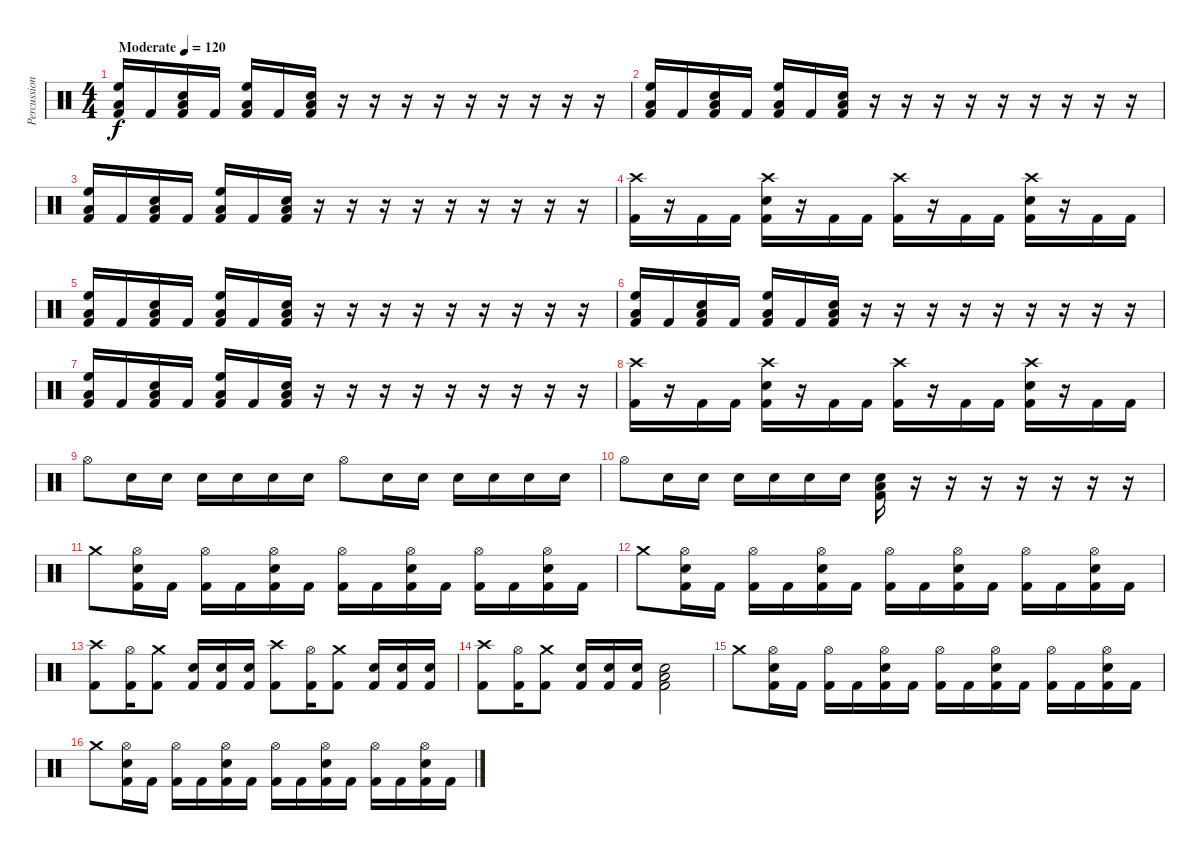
\track ("Percussion" "Percussion") {instrument percussion}
\staff {score}
\articulation defaults
\ts (4 4)
\tempo (120 "Moderate")
\clef neutral
\ks c
("Low Floor Tom (hit)" "High Floor Tom (hit)" "Kick (hit) 2").16{dy f} "Kick (hit) 2".16 ("Low Floor Tom (hit)" "Snare (hit) 2" "Kick (hit) 2").16 "Kick (hit) 2".16 ("Low Floor Tom (hit)" "High Floor Tom (hit)" "Kick (hit) 2").16 "Kick (hit) 2".16 ("Low Floor Tom (hit)" "Snare (hit) 2" "Kick (hit) 2").16 r.16 r.16 r.16 r.16 r.16 r.16 r.16 r.16 r.16 |
("Low Floor Tom (hit)" "High Floor Tom (hit)" "Kick (hit) 2").16 "Kick (hit) 2".16 ("Low Floor Tom (hit)" "Snare (hit) 2" "Kick (hit) 2").16 "Kick (hit) 2".16 ("Low Floor Tom (hit)" "High Floor Tom (hit)" "Kick (hit) 2").16 "Kick (hit) 2".16 ("Low Floor Tom (hit)" "Snare (hit) 2" "Kick (hit) 2").16 r.16 r.16 r.16 r.16 r.16 r.16 r.16 r.16 r.16 |
("Low Floor Tom (hit)" "High Floor Tom (hit)" "Kick (hit) 2").16 "Kick (hit) 2".16 ("Low Floor Tom (hit)" "Snare (hit) 2" "Kick (hit) 2").16 "Kick (hit) 2".16 ("Low Floor Tom (hit)" "High Floor Tom (hit)" "Kick (hit) 2").16 "Kick (hit) 2".16 ("Low Floor Tom (hit)" "Snare (hit) 2" "Kick (hit) 2").16 r.16 r.16 r.16 r.16 r.16 r.16 r.16 r.16 r.16 |
("Crash high (hit)" "Kick (hit) 2").16 r.16 "Kick (hit) 2".16 "Kick (hit) 2".16 ("Snare (hit) 2" "Crash high (hit)" "Kick (hit) 2").16 r.16 "Kick (hit) 2".16 "Kick (hit) 2".16 ("Crash high (hit)" "Kick (hit) 2").16 r.16 "Kick (hit) 2".16 "Kick (hit) 2".16 ("Snare (hit) 2" "Crash high (hit)" "Kick (hit) 2").16 r.16 "Kick (hit) 2".16 "Kick (hit) 2".16 |
("Low Floor Tom (hit)" "High Floor Tom (hit)" "Kick (hit) 2").16 "Kick (hit) 2".16 ("Low Floor Tom (hit)" "Snare (hit) 2" "Kick (hit) 2").16 "Kick (hit) 2".16 ("Low Floor Tom (hit)" "High Floor Tom (hit)" "Kick (hit) 2").16 "Kick (hit) 2".16 ("Low Floor Tom (hit)" "Snare (hit) 2" "Kick (hit) 2").16 r.16 r.16 r.16 r.16 r.16 r.16 r.16 r.16 r.16 |
("Low Floor Tom (hit)" "High Floor Tom (hit)" "Kick (hit) 2").16 "Kick (hit) 2".16 ("Low Floor Tom (hit)" "Snare (hit) 2" "Kick (hit) 2").16 "Kick (hit) 2".16 ("Low Floor Tom (hit)" "High Floor Tom (hit)" "Kick (hit) 2").16 "Kick (hit) 2".16 ("Low Floor Tom (hit)" "Snare (hit) 2" "Kick (hit) 2").16 r.16 r.16 r.16 r.16 r.16 r.16 r.16 r.16 r.16 |
("Low Floor Tom (hit)" "High Floor Tom (hit)" "Kick (hit) 2").16 "Kick (hit) 2".16 ("Low Floor Tom (hit)" "Snare (hit) 2" "Kick (hit) 2").16 "Kick (hit) 2".16 ("Low Floor Tom (hit)" "High Floor Tom (hit)" "Kick (hit) 2").16 "Kick (hit) 2".16 ("Low Floor Tom (hit)" "Snare (hit) 2" "Kick (hit) 2").16 r.16 r.16 r.16 r.16 r.16 r.16 r.16 r.16 r.16 |
("Crash high (hit)" "Kick (hit) 2").16 r.16 "Kick (hit) 2".16 "Kick (hit) 2".16 ("Snare (hit) 2" "Crash high (hit)" "Kick (hit) 2").16 r.16 "Kick (hit) 2".16 "Kick (hit) 2".16 ("Crash high (hit)" "Kick (hit) 2").16 r.16 "Kick (hit) 2".16 "Kick (hit) 2".16 ("Snare (hit) 2" "Crash high (hit)" "Kick (hit) 2").16 r.16 "Kick (hit) 2".16 "Kick (hit) 2".16 |
"Hi-Hat (open)".8 "Electric Snare (hit)".16 "Electric Snare (hit)".16 "Electric Snare (hit)".16 "Electric Snare (hit)".16 "Electric Snare (hit)".16 "Electric Snare (hit)".16 "Hi-Hat (open)".8 "Electric Snare (hit)".16 "Electric Snare (hit)".16 "Electric Snare (hit)".16 "Electric Snare (hit)".16 "Electric Snare (hit)".16 "Electric Snare (hit)".16 |
"Hi-Hat (open)".8 "Electric Snare (hit)".16 "Electric Snare (hit)".16 "Electric Snare (hit)".16 "Electric Snare (hit)".16 "Electric Snare (hit)".16 "Electric Snare (hit)".16 ("Low Floor Tom (hit)" "Electric Snare (hit)" "Kick (hit) 2").16 r.16 r.16 r.16 r.16 r.16 r.16 r.16 |
"Crash medium (hit)".8 ("Snare (hit) 2" "Hi-Hat (open)" "Kick (hit) 2").16 "Kick (hit) 2".16 ("Hi-Hat (open)" "Kick (hit) 2").16 "Kick (hit) 2".16 ("Snare (hit) 2" "Hi-Hat (open)" "Kick (hit) 2").16 "Kick (hit) 2".16 ("Hi-Hat (open)" "Kick (hit) 2").16 "Kick (hit) 2".16 ("Snare (hit) 2" "Hi-Hat (open)" "Kick (hit) 2").16 "Kick (hit) 2".16 ("Hi-Hat (open)" "Kick (hit) 2").16 "Kick (hit) 2".16 ("Snare (hit) 2" "Hi-Hat (open)" "Kick (hit) 2").16 "Kick (hit) 2".16 |
"Crash medium (hit)".8 ("Snare (hit) 2" "Hi-Hat (open)" "Kick (hit) 2").16 "Kick (hit) 2".16 ("Hi-Hat (open)" "Kick (hit) 2").16 "Kick (hit) 2".16 ("Snare (hit) 2" "Hi-Hat (open)" "Kick (hit) 2").16 "Kick (hit) 2".16 ("Hi-Hat (open)" "Kick (hit) 2").16 "Kick (hit) 2".16 ("Snare (hit) 2" "Hi-Hat (open)" "Kick (hit) 2").16 "Kick (hit) 2".16 ("Hi-Hat (open)" "Kick (hit) 2").16 "Kick (hit) 2".16 ("Snare (hit) 2" "Hi-Hat (open)" "Kick (hit) 2").16 "Kick (hit) 2".16 |
("Kick (hit) 2" "Crash high (hit)").8 ("Kick (hit) 2" "Hi-Hat (open)").16 ("Kick (hit) 2" "Crash medium (hit)").8 ("Kick (hit) 2" "Electric Snare (hit)").16 ("Kick (hit) 2" "Electric Snare (hit)").16 ("Kick (hit) 2" "Electric Snare (hit)").16 ("Kick (hit) 2" "Crash high (hit)").8 ("Kick (hit) 2" "Hi-Hat (open)").16 ("Kick (hit) 2" "Crash medium (hit)").8 ("Kick (hit) 2" "Electric Snare (hit)").16 ("Kick (hit) 2" "Electric Snare (hit)").16 ("Kick (hit) 2" "Electric Snare (hit)").16 |
("Kick (hit) 2" "Crash high (hit)").8 ("Kick (hit) 2" "Hi-Hat (open)").16 ("Kick (hit) 2" "Crash medium (hit)").8 ("Kick (hit) 2" "Electric Snare (hit)").16 ("Kick (hit) 2" "Electric Snare (hit)").16 ("Kick (hit) 2" "Electric Snare (hit)").16 ("Low Floor Tom (hit)" "Kick (hit) 2" "Electric Snare (hit)").2 |
"Crash medium (hit)".8 ("Snare (hit) 2" "Hi-Hat (open)" "Kick (hit) 2").16 "Kick (hit) 2".16 ("Hi-Hat (open)" "Kick (hit) 2").16 "Kick (hit) 2".16 ("Snare (hit) 2" "Hi-Hat (open)" "Kick (hit) 2").16 "Kick (hit) 2".16 ("Hi-Hat (open)" "Kick (hit) 2").16 "Kick (hit) 2".16 ("Snare (hit) 2" "Hi-Hat (open)" "Kick (hit) 2").16 "Kick (hit) 2".16 ("Hi-Hat (open)" "Kick (hit) 2").16 "Kick (hit) 2".16 ("Snare (hit) 2" "Hi-Hat (open)" "Kick (hit) 2").16 "Kick (hit) 2".16 |
"Crash medium (hit)".8 ("Snare (hit) 2" "Hi-Hat (open)" "Kick (hit) 2").16 "Kick (hit) 2".16 ("Hi-Hat (open)" "Kick (hit) 2").16 "Kick (hit) 2".16 ("Snare (hit) 2" "Hi-Hat (open)" "Kick (hit) 2").16 "Kick (hit) 2".16 ("Hi-Hat (open)" "Kick (hit) 2").16 "Kick (hit) 2".16 ("Snare (hit) 2" "Hi-Hat (open)" "Kick (hit) 2").16 "Kick (hit) 2".16 ("Hi-Hat (open)" "Kick (hit) 2").16 "Kick (hit) 2".16 ("Snare (hit) 2" "Hi-Hat (open)" "Kick (hit) 2").16 "Kick (hit) 2".16
